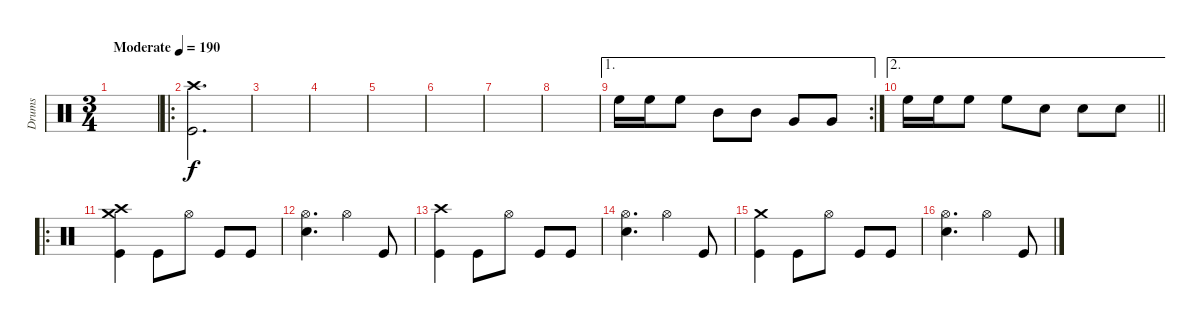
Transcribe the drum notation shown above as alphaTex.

\track ("Drums" "Drums") {instrument percussion}
\staff {score}
\articulation defaults
\ts (3 4)
\tempo (190 "Moderate")
\clef neutral
\ks c
|
\ro
("Crash high (hit)" "Kick (hit)").2{d} |
|
|
|
|
|
|
\ae 1
\rc 2 "High Floor Tom (hit)".16 "High Floor Tom (hit)".16 "High Floor Tom (hit)".8 "Mid Tom (hit)".8 "Mid Tom (hit)".8 "Very Low Tom (hit)".8 "Very Low Tom (hit)".8
|
\ae 2
\barLineRight lightlight "High Floor Tom (hit)".16 "High Floor Tom (hit)".16 "High Floor Tom (hit)".8 "High Floor Tom (hit)".8 "Snare (hit) 2".8 "Snare (hit) 2".8 "Snare (hit) 2".8
|
\ro
("Crash high (hit)" "Crash medium (hit)" "Kick (hit)").4 "Kick (hit)".8 "Hi-Hat (open)".8 "Kick (hit)".8 "Kick (hit)".8 |
("Hi-Hat (open)" "Snare (hit) 2").4{d} "Hi-Hat (open)".4 "Kick (hit)".8 |
("Crash high (hit)" "Kick (hit)").4 "Kick (hit)".8 "Hi-Hat (open)".8 "Kick (hit)".8 "Kick (hit)".8 |
("Hi-Hat (open)" "Snare (hit) 2").4{d} "Hi-Hat (open)".4 "Kick (hit)".8 |
("Crash medium (hit)" "Kick (hit)").4 "Kick (hit)".8 "Hi-Hat (open)".8 "Kick (hit)".8 "Kick (hit)".8 |
("Hi-Hat (open)" "Snare (hit) 2").4{d} "Hi-Hat (open)".4 "Kick (hit)".8
